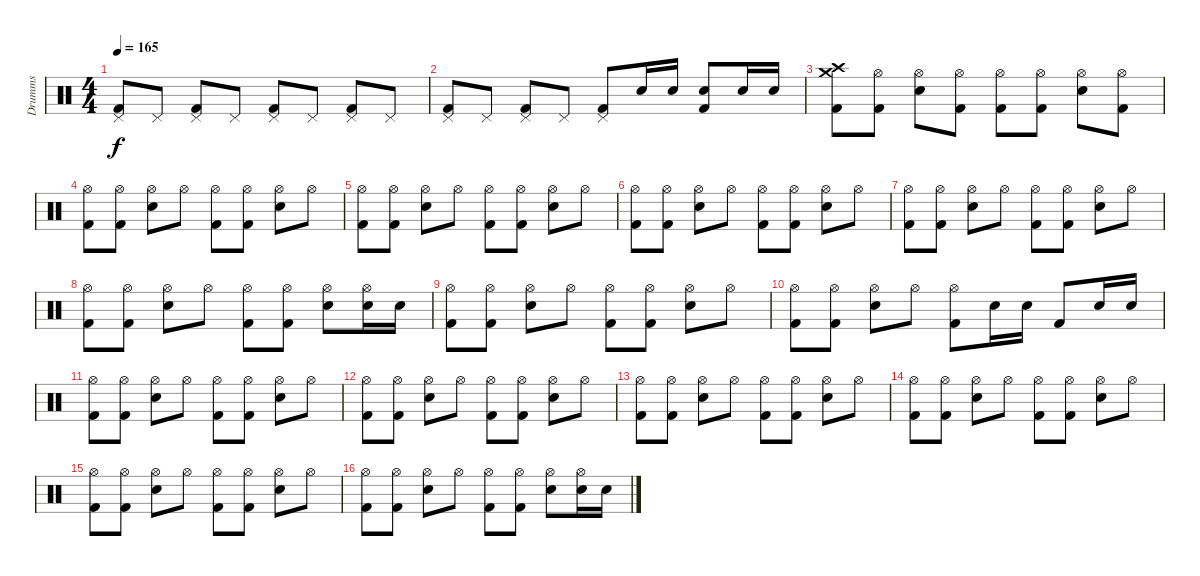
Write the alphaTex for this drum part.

\track ("Drumms" "Drumms") {instrument percussion}
\staff {score}
\articulation defaults
\ts (4 4)
\tempo 165
\clef neutral
\ks c
("Pedal Hi-Hat (hit)" "Kick (hit) 2").8{dy f} "Pedal Hi-Hat (hit)".8 ("Pedal Hi-Hat (hit)" "Kick (hit) 2").8 "Pedal Hi-Hat (hit)".8 ("Pedal Hi-Hat (hit)" "Kick (hit) 2").8 "Pedal Hi-Hat (hit)".8 ("Pedal Hi-Hat (hit)" "Kick (hit) 2").8 "Pedal Hi-Hat (hit)".8 |
("Pedal Hi-Hat (hit)" "Kick (hit) 2").8 "Pedal Hi-Hat (hit)".8 ("Pedal Hi-Hat (hit)" "Kick (hit) 2").8 "Pedal Hi-Hat (hit)".8 ("Pedal Hi-Hat (hit)" "Kick (hit) 2").8 "Electric Snare (hit)".16 "Electric Snare (hit)".16 ("Electric Snare (hit)" "Kick (hit) 2").8 "Electric Snare (hit)".16 "Electric Snare (hit)".16 |
("Crash medium (hit)" "Crash high (hit)" "Kick (hit) 2").8 ("Hi-Hat (open)" "Kick (hit) 2").8 ("Hi-Hat (open)" "Electric Snare (hit)").8 ("Hi-Hat (open)" "Kick (hit) 2").8 ("Hi-Hat (open)" "Kick (hit) 2").8 ("Hi-Hat (open)" "Kick (hit) 2").8 ("Hi-Hat (open)" "Electric Snare (hit)").8 ("Hi-Hat (open)" "Kick (hit) 2").8 |
("Hi-Hat (open)" "Kick (hit) 2").8 ("Hi-Hat (open)" "Kick (hit) 2").8 ("Hi-Hat (open)" "Electric Snare (hit)").8 "Hi-Hat (open)".8 ("Hi-Hat (open)" "Kick (hit) 2").8 ("Hi-Hat (open)" "Kick (hit) 2").8 ("Hi-Hat (open)" "Electric Snare (hit)").8 "Hi-Hat (open)".8 |
("Hi-Hat (open)" "Kick (hit) 2").8 ("Hi-Hat (open)" "Kick (hit) 2").8 ("Hi-Hat (open)" "Electric Snare (hit)").8 "Hi-Hat (open)".8 ("Hi-Hat (open)" "Kick (hit) 2").8 ("Hi-Hat (open)" "Kick (hit) 2").8 ("Hi-Hat (open)" "Electric Snare (hit)").8 "Hi-Hat (open)".8 |
("Hi-Hat (open)" "Kick (hit) 2").8 ("Hi-Hat (open)" "Kick (hit) 2").8 ("Hi-Hat (open)" "Electric Snare (hit)").8 "Hi-Hat (open)".8 ("Hi-Hat (open)" "Kick (hit) 2").8 ("Hi-Hat (open)" "Kick (hit) 2").8 ("Hi-Hat (open)" "Electric Snare (hit)").8 "Hi-Hat (open)".8 |
("Hi-Hat (open)" "Kick (hit) 2").8 ("Hi-Hat (open)" "Kick (hit) 2").8 ("Hi-Hat (open)" "Electric Snare (hit)").8 "Hi-Hat (open)".8 ("Hi-Hat (open)" "Kick (hit) 2").8 ("Hi-Hat (open)" "Kick (hit) 2").8 ("Hi-Hat (open)" "Electric Snare (hit)").8 "Hi-Hat (open)".8 |
("Hi-Hat (open)" "Kick (hit) 2").8 ("Hi-Hat (open)" "Kick (hit) 2").8 ("Hi-Hat (open)" "Electric Snare (hit)").8 "Hi-Hat (open)".8 ("Hi-Hat (open)" "Kick (hit) 2").8 ("Hi-Hat (open)" "Kick (hit) 2").8 ("Hi-Hat (open)" "Electric Snare (hit)").8 ("Hi-Hat (open)" "Electric Snare (hit)").16 "Electric Snare (hit)".16 |
("Hi-Hat (open)" "Kick (hit) 2").8 ("Hi-Hat (open)" "Kick (hit) 2").8 ("Hi-Hat (open)" "Electric Snare (hit)").8 "Hi-Hat (open)".8 ("Hi-Hat (open)" "Kick (hit) 2").8 ("Hi-Hat (open)" "Kick (hit) 2").8 ("Hi-Hat (open)" "Electric Snare (hit)").8 "Hi-Hat (open)".8 |
("Hi-Hat (open)" "Kick (hit) 2").8 ("Hi-Hat (open)" "Kick (hit) 2").8 ("Hi-Hat (open)" "Electric Snare (hit)").8 "Hi-Hat (open)".8 ("Hi-Hat (open)" "Kick (hit) 2").8 "Electric Snare (hit)".16 "Electric Snare (hit)".16 "Kick (hit) 2".8 "Electric Snare (hit)".16 "Electric Snare (hit)".16 |
("Hi-Hat (open)" "Kick (hit) 2").8 ("Hi-Hat (open)" "Kick (hit) 2").8 ("Hi-Hat (open)" "Electric Snare (hit)").8 "Hi-Hat (open)".8 ("Hi-Hat (open)" "Kick (hit) 2").8 ("Hi-Hat (open)" "Kick (hit) 2").8 ("Hi-Hat (open)" "Electric Snare (hit)").8 "Hi-Hat (open)".8 |
("Hi-Hat (open)" "Kick (hit) 2").8 ("Hi-Hat (open)" "Kick (hit) 2").8 ("Hi-Hat (open)" "Electric Snare (hit)").8 "Hi-Hat (open)".8 ("Hi-Hat (open)" "Kick (hit) 2").8 ("Hi-Hat (open)" "Kick (hit) 2").8 ("Hi-Hat (open)" "Electric Snare (hit)").8 "Hi-Hat (open)".8 |
("Hi-Hat (open)" "Kick (hit) 2").8 ("Hi-Hat (open)" "Kick (hit) 2").8 ("Hi-Hat (open)" "Electric Snare (hit)").8 "Hi-Hat (open)".8 ("Hi-Hat (open)" "Kick (hit) 2").8 ("Hi-Hat (open)" "Kick (hit) 2").8 ("Hi-Hat (open)" "Electric Snare (hit)").8 "Hi-Hat (open)".8 |
("Hi-Hat (open)" "Kick (hit) 2").8 ("Hi-Hat (open)" "Kick (hit) 2").8 ("Hi-Hat (open)" "Electric Snare (hit)").8 "Hi-Hat (open)".8 ("Hi-Hat (open)" "Kick (hit) 2").8 ("Hi-Hat (open)" "Kick (hit) 2").8 ("Hi-Hat (open)" "Electric Snare (hit)").8 "Hi-Hat (open)".8 |
("Hi-Hat (open)" "Kick (hit) 2").8 ("Hi-Hat (open)" "Kick (hit) 2").8 ("Hi-Hat (open)" "Electric Snare (hit)").8 "Hi-Hat (open)".8 ("Hi-Hat (open)" "Kick (hit) 2").8 ("Hi-Hat (open)" "Kick (hit) 2").8 ("Hi-Hat (open)" "Electric Snare (hit)").8 "Hi-Hat (open)".8 |
("Hi-Hat (open)" "Kick (hit) 2").8 ("Hi-Hat (open)" "Kick (hit) 2").8 ("Hi-Hat (open)" "Electric Snare (hit)").8 "Hi-Hat (open)".8 ("Hi-Hat (open)" "Kick (hit) 2").8 ("Hi-Hat (open)" "Kick (hit) 2").8 ("Hi-Hat (open)" "Electric Snare (hit)").8 ("Hi-Hat (open)" "Electric Snare (hit)").16 "Electric Snare (hit)".16
